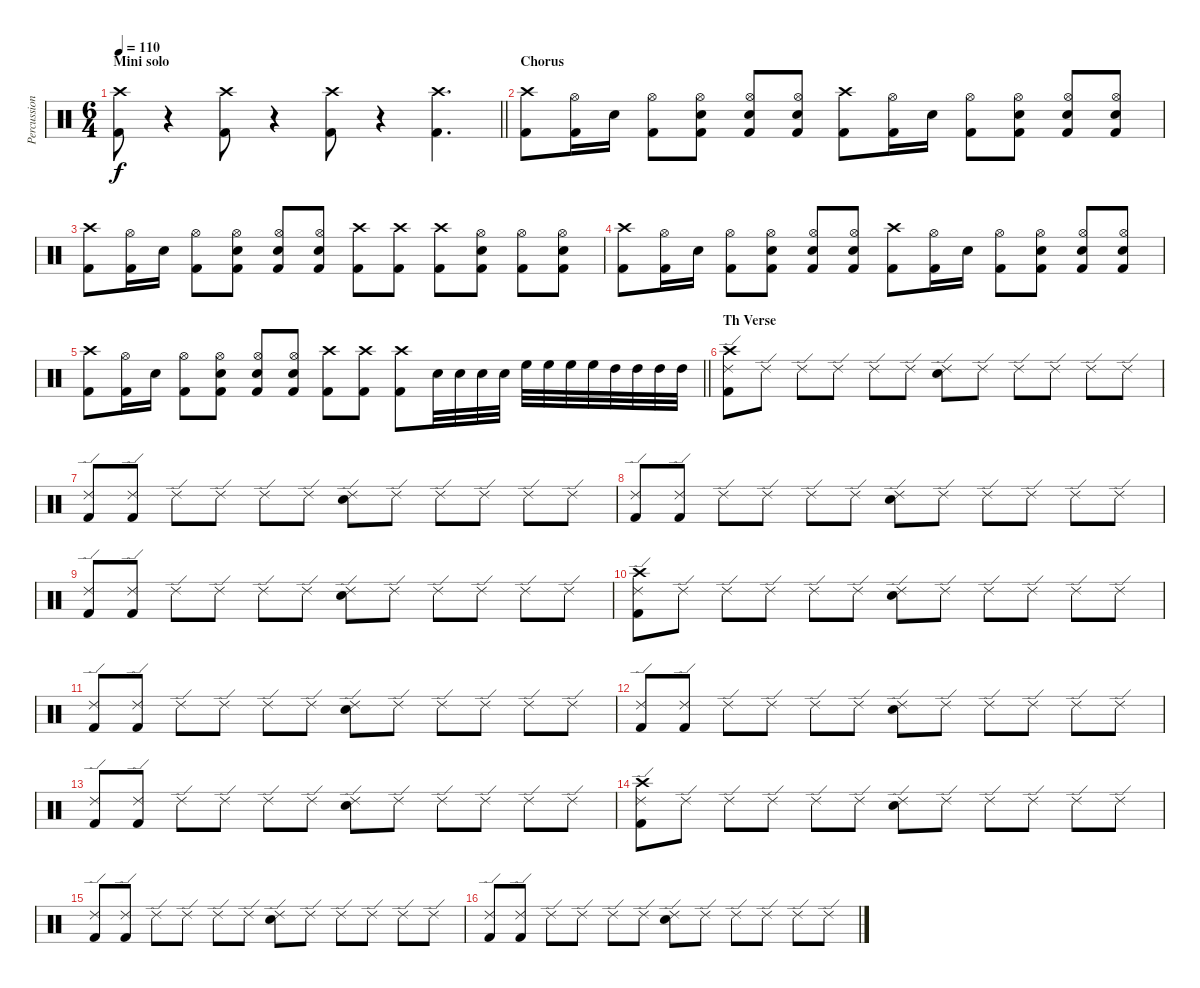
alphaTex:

\track ("Percussion" "Percussion") {instrument percussion}
\staff {score}
\articulation defaults
\ts (6 4)
\section ("" "Mini solo")
\tempo 110
\clef neutral
\barLineRight lightlight
\ks c
("Crash high (hit)" "Kick (hit) 2").8{dy f} r.4 ("Crash high (hit)" "Kick (hit) 2").8 r.4 ("Crash high (hit)" "Kick (hit) 2").8 r.4 ("Crash high (hit)" "Kick (hit) 2").4{d} |
\section ("" "Chorus")
("Crash high (hit)" "Kick (hit) 2").8 ("Hi-Hat (open)" "Kick (hit) 2").16 "Electric Snare (hit)".16 ("Hi-Hat (open)" "Kick (hit) 2").8 ("Hi-Hat (open)" "Kick (hit) 2" "Electric Snare (hit)").8 ("Hi-Hat (open)" "Kick (hit) 2" "Electric Snare (hit)").8 ("Hi-Hat (open)" "Kick (hit) 2" "Electric Snare (hit)").8 ("Crash high (hit)" "Kick (hit) 2").8 ("Hi-Hat (open)" "Kick (hit) 2").16 "Electric Snare (hit)".16 ("Hi-Hat (open)" "Kick (hit) 2").8 ("Hi-Hat (open)" "Kick (hit) 2" "Electric Snare (hit)").8 ("Hi-Hat (open)" "Kick (hit) 2" "Electric Snare (hit)").8 ("Hi-Hat (open)" "Kick (hit) 2" "Electric Snare (hit)").8 |
("Crash high (hit)" "Kick (hit) 2").8 ("Hi-Hat (open)" "Kick (hit) 2").16 "Electric Snare (hit)".16 ("Hi-Hat (open)" "Kick (hit) 2").8 ("Hi-Hat (open)" "Kick (hit) 2" "Electric Snare (hit)").8 ("Hi-Hat (open)" "Kick (hit) 2" "Electric Snare (hit)").8 ("Hi-Hat (open)" "Kick (hit) 2" "Electric Snare (hit)").8 ("Crash high (hit)" "Kick (hit) 2").8 ("Crash high (hit)" "Kick (hit) 2").8 ("Crash high (hit)" "Kick (hit) 2").8 ("Hi-Hat (open)" "Kick (hit) 2" "Electric Snare (hit)").8 ("Hi-Hat (open)" "Kick (hit) 2").8 ("Hi-Hat (open)" "Kick (hit) 2" "Electric Snare (hit)").8 |
("Crash high (hit)" "Kick (hit) 2").8 ("Hi-Hat (open)" "Kick (hit) 2").16 "Electric Snare (hit)".16 ("Hi-Hat (open)" "Kick (hit) 2").8 ("Hi-Hat (open)" "Kick (hit) 2" "Electric Snare (hit)").8 ("Hi-Hat (open)" "Kick (hit) 2" "Electric Snare (hit)").8 ("Hi-Hat (open)" "Kick (hit) 2" "Electric Snare (hit)").8 ("Crash high (hit)" "Kick (hit) 2").8 ("Hi-Hat (open)" "Kick (hit) 2").16 "Electric Snare (hit)".16 ("Hi-Hat (open)" "Kick (hit) 2").8 ("Hi-Hat (open)" "Kick (hit) 2" "Electric Snare (hit)").8 ("Hi-Hat (open)" "Kick (hit) 2" "Electric Snare (hit)").8 ("Hi-Hat (open)" "Kick (hit) 2" "Electric Snare (hit)").8 |
\barLineRight lightlight
("Crash high (hit)" "Kick (hit) 2").8 ("Hi-Hat (open)" "Kick (hit) 2").16 "Electric Snare (hit)".16 ("Hi-Hat (open)" "Kick (hit) 2").8 ("Hi-Hat (open)" "Kick (hit) 2" "Electric Snare (hit)").8 ("Hi-Hat (open)" "Kick (hit) 2" "Electric Snare (hit)").8 ("Hi-Hat (open)" "Kick (hit) 2" "Electric Snare (hit)").8 ("Crash high (hit)" "Kick (hit) 2").8 ("Crash high (hit)" "Kick (hit) 2").8 ("Crash high (hit)" "Kick (hit) 2").8 "Electric Snare (hit)".32 "Electric Snare (hit)".32 "Electric Snare (hit)".32 "Electric Snare (hit)".32 "High Floor Tom (hit)".32 "High Floor Tom (hit)".32 "High Floor Tom (hit)".32 "High Floor Tom (hit)".32 "High Tom (hit)".32 "High Tom (hit)".32 "High Tom (hit)".32 "High Tom (hit)".32 |
\section ("" "Th Verse")
("Ride (edge) 2" "Crash high (hit)" "Kick (hit) 2").8 "Ride (edge) 2".8 "Ride (edge) 2".8 "Ride (edge) 2".8 "Ride (edge) 2".8 "Ride (edge) 2".8 ("Ride (edge) 2" "Electric Snare (hit)").8 "Ride (edge) 2".8 "Ride (edge) 2".8 "Ride (edge) 2".8 "Ride (edge) 2".8 "Ride (edge) 2".8 |
("Ride (edge) 2" "Kick (hit) 2").8 ("Ride (edge) 2" "Kick (hit) 2").8 "Ride (edge) 2".8 "Ride (edge) 2".8 "Ride (edge) 2".8 "Ride (edge) 2".8 ("Ride (edge) 2" "Electric Snare (hit)").8 "Ride (edge) 2".8 "Ride (edge) 2".8 "Ride (edge) 2".8 "Ride (edge) 2".8 "Ride (edge) 2".8 |
("Ride (edge) 2" "Kick (hit) 2").8 ("Ride (edge) 2" "Kick (hit) 2").8 "Ride (edge) 2".8 "Ride (edge) 2".8 "Ride (edge) 2".8 "Ride (edge) 2".8 ("Ride (edge) 2" "Electric Snare (hit)").8 "Ride (edge) 2".8 "Ride (edge) 2".8 "Ride (edge) 2".8 "Ride (edge) 2".8 "Ride (edge) 2".8 |
("Ride (edge) 2" "Kick (hit) 2").8 ("Ride (edge) 2" "Kick (hit) 2").8 "Ride (edge) 2".8 "Ride (edge) 2".8 "Ride (edge) 2".8 "Ride (edge) 2".8 ("Ride (edge) 2" "Electric Snare (hit)").8 "Ride (edge) 2".8 "Ride (edge) 2".8 "Ride (edge) 2".8 "Ride (edge) 2".8 "Ride (edge) 2".8 |
("Ride (edge) 2" "Kick (hit) 2" "Crash high (hit)").8 "Ride (edge) 2".8 "Ride (edge) 2".8 "Ride (edge) 2".8 "Ride (edge) 2".8 "Ride (edge) 2".8 ("Ride (edge) 2" "Electric Snare (hit)").8 "Ride (edge) 2".8 "Ride (edge) 2".8 "Ride (edge) 2".8 "Ride (edge) 2".8 "Ride (edge) 2".8 |
("Ride (edge) 2" "Kick (hit) 2").8 ("Ride (edge) 2" "Kick (hit) 2").8 "Ride (edge) 2".8 "Ride (edge) 2".8 "Ride (edge) 2".8 "Ride (edge) 2".8 ("Ride (edge) 2" "Electric Snare (hit)").8 "Ride (edge) 2".8 "Ride (edge) 2".8 "Ride (edge) 2".8 "Ride (edge) 2".8 "Ride (edge) 2".8 |
("Ride (edge) 2" "Kick (hit) 2").8 ("Ride (edge) 2" "Kick (hit) 2").8 "Ride (edge) 2".8 "Ride (edge) 2".8 "Ride (edge) 2".8 "Ride (edge) 2".8 ("Ride (edge) 2" "Electric Snare (hit)").8 "Ride (edge) 2".8 "Ride (edge) 2".8 "Ride (edge) 2".8 "Ride (edge) 2".8 "Ride (edge) 2".8 |
("Ride (edge) 2" "Kick (hit) 2").8 ("Ride (edge) 2" "Kick (hit) 2").8 "Ride (edge) 2".8 "Ride (edge) 2".8 "Ride (edge) 2".8 "Ride (edge) 2".8 ("Ride (edge) 2" "Electric Snare (hit)").8 "Ride (edge) 2".8 "Ride (edge) 2".8 "Ride (edge) 2".8 "Ride (edge) 2".8 "Ride (edge) 2".8 |
("Ride (edge) 2" "Kick (hit) 2" "Crash high (hit)").8 "Ride (edge) 2".8 "Ride (edge) 2".8 "Ride (edge) 2".8 "Ride (edge) 2".8 "Ride (edge) 2".8 ("Ride (edge) 2" "Electric Snare (hit)").8 "Ride (edge) 2".8 "Ride (edge) 2".8 "Ride (edge) 2".8 "Ride (edge) 2".8 "Ride (edge) 2".8 |
("Ride (edge) 2" "Kick (hit) 2").8 ("Ride (edge) 2" "Kick (hit) 2").8 "Ride (edge) 2".8 "Ride (edge) 2".8 "Ride (edge) 2".8 "Ride (edge) 2".8 ("Ride (edge) 2" "Electric Snare (hit)").8 "Ride (edge) 2".8 "Ride (edge) 2".8 "Ride (edge) 2".8 "Ride (edge) 2".8 "Ride (edge) 2".8 |
("Ride (edge) 2" "Kick (hit) 2").8 ("Ride (edge) 2" "Kick (hit) 2").8 "Ride (edge) 2".8 "Ride (edge) 2".8 "Ride (edge) 2".8 "Ride (edge) 2".8 ("Ride (edge) 2" "Electric Snare (hit)").8 "Ride (edge) 2".8 "Ride (edge) 2".8 "Ride (edge) 2".8 "Ride (edge) 2".8 "Ride (edge) 2".8
